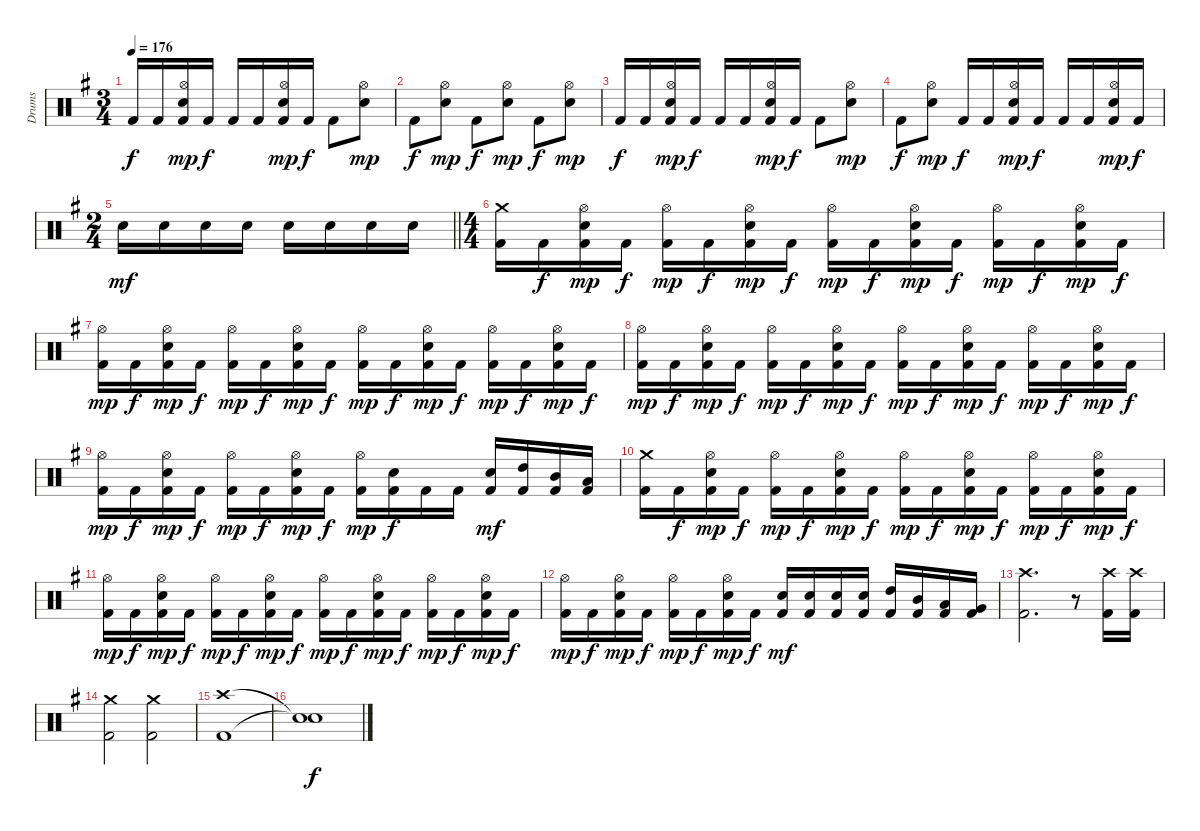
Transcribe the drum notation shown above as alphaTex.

\track ("Drums" "Drums") {instrument percussion}
\staff {score}
\articulation defaults
\ts (3 4)
\tempo 176
\clef neutral
\ks eminor "Kick (hit) 2".16{dy f} "Kick (hit) 2".16
("Hi-Hat (open)" "Electric Snare (hit)" "Kick (hit) 2").16{dy mp} "Kick (hit) 2".16{dy f} "Kick (hit) 2".16 "Kick (hit) 2".16 ("Hi-Hat (open)" "Electric Snare (hit)" "Kick (hit) 2").16{dy mp} "Kick (hit) 2".16{dy f} "Kick (hit) 2".8 ("Hi-Hat (open)" "Electric Snare (hit)").8{dy mp} |
"Kick (hit) 2".8{dy f} ("Hi-Hat (open)" "Electric Snare (hit)").8{dy mp} "Kick (hit) 2".8{dy f} ("Hi-Hat (open)" "Electric Snare (hit)").8{dy mp} "Kick (hit) 2".8{dy f} ("Hi-Hat (open)" "Electric Snare (hit)").8{dy mp} |
"Kick (hit) 2".16{dy f} "Kick (hit) 2".16 ("Hi-Hat (open)" "Electric Snare (hit)" "Kick (hit) 2").16{dy mp} "Kick (hit) 2".16{dy f} "Kick (hit) 2".16 "Kick (hit) 2".16 ("Hi-Hat (open)" "Electric Snare (hit)" "Kick (hit) 2").16{dy mp} "Kick (hit) 2".16{dy f} "Kick (hit) 2".8 ("Hi-Hat (open)" "Electric Snare (hit)").8{dy mp} |
"Kick (hit) 2".8{dy f} ("Hi-Hat (open)" "Electric Snare (hit)").8{dy mp} "Kick (hit) 2".16{dy f} "Kick (hit) 2".16 ("Hi-Hat (open)" "Electric Snare (hit)" "Kick (hit) 2").16{dy mp} "Kick (hit) 2".16{dy f} "Kick (hit) 2".16 "Kick (hit) 2".16 ("Hi-Hat (open)" "Electric Snare (hit)" "Kick (hit) 2").16{dy mp} "Kick (hit) 2".16{dy f} |
\ts (2 4)
\barLineRight lightlight "Electric Snare (hit)".16{dy mf} "Electric Snare (hit)".16 "Electric Snare (hit)".16 "Electric Snare (hit)".16 "Electric Snare (hit)".16 "Electric Snare (hit)".16 "Electric Snare (hit)".16 "Electric Snare (hit)".16
|
\ts (4 4)
\section ("" "")
("Crash medium (hit)" "Kick (hit) 2").16 "Kick (hit) 2".16{dy f} ("Hi-Hat (open)" "Electric Snare (hit)" "Kick (hit) 2").16{dy mp} "Kick (hit) 2".16{dy f} ("Hi-Hat (open)" "Kick (hit) 2").16{dy mp} "Kick (hit) 2".16{dy f} ("Hi-Hat (open)" "Electric Snare (hit)" "Kick (hit) 2").16{dy mp} "Kick (hit) 2".16{dy f} ("Hi-Hat (open)" "Kick (hit) 2").16{dy mp} "Kick (hit) 2".16{dy f} ("Hi-Hat (open)" "Electric Snare (hit)" "Kick (hit) 2").16{dy mp} "Kick (hit) 2".16{dy f} ("Hi-Hat (open)" "Kick (hit) 2").16{dy mp} "Kick (hit) 2".16{dy f} ("Hi-Hat (open)" "Electric Snare (hit)" "Kick (hit) 2").16{dy mp} "Kick (hit) 2".16{dy f} |
("Hi-Hat (open)" "Kick (hit) 2").16{dy mp} "Kick (hit) 2".16{dy f} ("Hi-Hat (open)" "Electric Snare (hit)" "Kick (hit) 2").16{dy mp} "Kick (hit) 2".16{dy f} ("Hi-Hat (open)" "Kick (hit) 2").16{dy mp} "Kick (hit) 2".16{dy f} ("Hi-Hat (open)" "Electric Snare (hit)" "Kick (hit) 2").16{dy mp} "Kick (hit) 2".16{dy f} ("Hi-Hat (open)" "Kick (hit) 2").16{dy mp} "Kick (hit) 2".16{dy f} ("Hi-Hat (open)" "Electric Snare (hit)" "Kick (hit) 2").16{dy mp} "Kick (hit) 2".16{dy f} ("Hi-Hat (open)" "Kick (hit) 2").16{dy mp} "Kick (hit) 2".16{dy f} ("Hi-Hat (open)" "Electric Snare (hit)" "Kick (hit) 2").16{dy mp} "Kick (hit) 2".16{dy f} |
("Hi-Hat (open)" "Kick (hit) 2").16{dy mp} "Kick (hit) 2".16{dy f} ("Hi-Hat (open)" "Electric Snare (hit)" "Kick (hit) 2").16{dy mp} "Kick (hit) 2".16{dy f} ("Hi-Hat (open)" "Kick (hit) 2").16{dy mp} "Kick (hit) 2".16{dy f} ("Hi-Hat (open)" "Electric Snare (hit)" "Kick (hit) 2").16{dy mp} "Kick (hit) 2".16{dy f} ("Hi-Hat (open)" "Kick (hit) 2").16{dy mp} "Kick (hit) 2".16{dy f} ("Hi-Hat (open)" "Electric Snare (hit)" "Kick (hit) 2").16{dy mp} "Kick (hit) 2".16{dy f} ("Hi-Hat (open)" "Kick (hit) 2").16{dy mp} "Kick (hit) 2".16{dy f} ("Hi-Hat (open)" "Electric Snare (hit)" "Kick (hit) 2").16{dy mp} "Kick (hit) 2".16{dy f} |
("Hi-Hat (open)" "Kick (hit) 2").16{dy mp} "Kick (hit) 2".16{dy f} ("Hi-Hat (open)" "Electric Snare (hit)" "Kick (hit) 2").16{dy mp} "Kick (hit) 2".16{dy f} ("Hi-Hat (open)" "Kick (hit) 2").16{dy mp} "Kick (hit) 2".16{dy f} ("Hi-Hat (open)" "Electric Snare (hit)" "Kick (hit) 2").16{dy mp} "Kick (hit) 2".16{dy f} ("Hi-Hat (open)" "Kick (hit) 2").16{dy mp} ("Electric Snare (hit)" "Kick (hit) 2").16{dy f} "Kick (hit) 2".16 "Kick (hit) 2".16 ("Electric Snare (hit)" "Kick (hit) 2").16{dy mf} ("High Tom (hit)" "Kick (hit) 2").16 ("Mid Tom (hit)" "Kick (hit) 2").16 ("Low Tom (hit)" "Kick (hit) 2").16 |
("Crash medium (hit)" "Kick (hit) 2").16 "Kick (hit) 2".16{dy f} ("Hi-Hat (open)" "Electric Snare (hit)" "Kick (hit) 2").16{dy mp} "Kick (hit) 2".16{dy f} ("Hi-Hat (open)" "Kick (hit) 2").16{dy mp} "Kick (hit) 2".16{dy f} ("Hi-Hat (open)" "Electric Snare (hit)" "Kick (hit) 2").16{dy mp} "Kick (hit) 2".16{dy f} ("Hi-Hat (open)" "Kick (hit) 2").16{dy mp} "Kick (hit) 2".16{dy f} ("Hi-Hat (open)" "Electric Snare (hit)" "Kick (hit) 2").16{dy mp} "Kick (hit) 2".16{dy f} ("Hi-Hat (open)" "Kick (hit) 2").16{dy mp} "Kick (hit) 2".16{dy f} ("Hi-Hat (open)" "Electric Snare (hit)" "Kick (hit) 2").16{dy mp} "Kick (hit) 2".16{dy f} |
("Hi-Hat (open)" "Kick (hit) 2").16{dy mp} "Kick (hit) 2".16{dy f} ("Hi-Hat (open)" "Electric Snare (hit)" "Kick (hit) 2").16{dy mp} "Kick (hit) 2".16{dy f} ("Hi-Hat (open)" "Kick (hit) 2").16{dy mp} "Kick (hit) 2".16{dy f} ("Hi-Hat (open)" "Electric Snare (hit)" "Kick (hit) 2").16{dy mp} "Kick (hit) 2".16{dy f} ("Hi-Hat (open)" "Kick (hit) 2").16{dy mp} "Kick (hit) 2".16{dy f} ("Hi-Hat (open)" "Electric Snare (hit)" "Kick (hit) 2").16{dy mp} "Kick (hit) 2".16{dy f} ("Hi-Hat (open)" "Kick (hit) 2").16{dy mp} "Kick (hit) 2".16{dy f} ("Hi-Hat (open)" "Electric Snare (hit)" "Kick (hit) 2").16{dy mp} "Kick (hit) 2".16{dy f} |
("Hi-Hat (open)" "Kick (hit) 2").16{dy mp} "Kick (hit) 2".16{dy f} ("Hi-Hat (open)" "Electric Snare (hit)" "Kick (hit) 2").16{dy mp} "Kick (hit) 2".16{dy f} ("Hi-Hat (open)" "Kick (hit) 2").16{dy mp} "Kick (hit) 2".16{dy f} ("Hi-Hat (open)" "Electric Snare (hit)" "Kick (hit) 2").16{dy mp} "Kick (hit) 2".16{dy f} ("Electric Snare (hit)" "Kick (hit) 2").16{dy mf} ("Electric Snare (hit)" "Kick (hit) 2").16 ("Electric Snare (hit)" "Kick (hit) 2").16 ("Electric Snare (hit)" "Kick (hit) 2").16 ("High Tom (hit)" "Kick (hit) 2").16 ("Mid Tom (hit)" "Kick (hit) 2").16 ("Low Tom (hit)" "Kick (hit) 2").16 ("Very Low Tom (hit)" "Kick (hit) 2").16 |
("Crash high (hit)" "Kick (hit) 2").2{d} r.8 ("Crash high (hit)" "Kick (hit) 2").16 ("Crash high (hit)" "Kick (hit) 2").16 |
("Crash medium (hit)" "Kick (hit) 2").2 ("Crash medium (hit)" "Kick (hit) 2").2 |
("Crash high (hit)" "Kick (hit) 2").1 |
("Snare (hit)"{t} "Snare (hit)"{t}).1{dy f}
